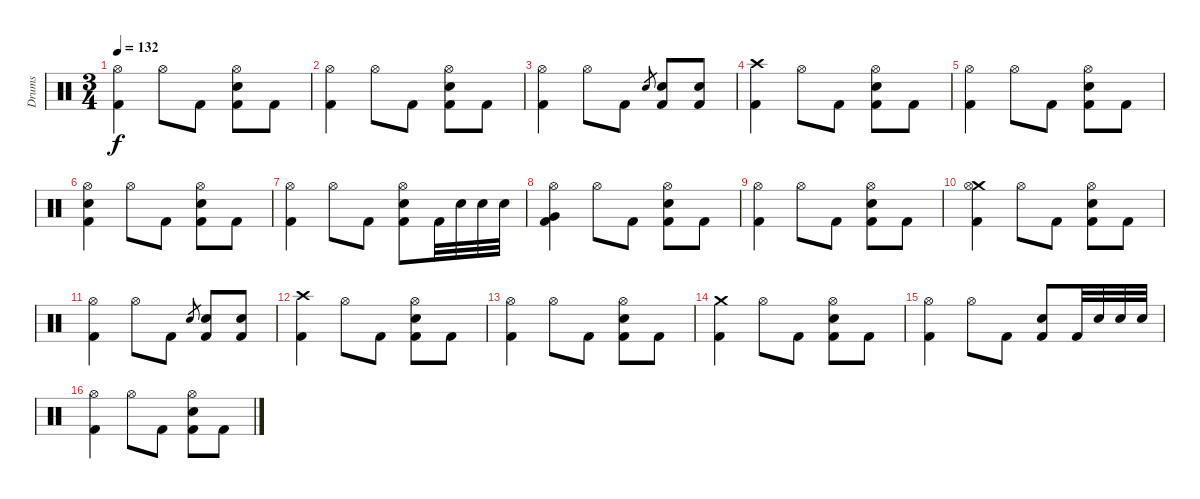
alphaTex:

\track ("Drums" "Drums") {instrument percussion}
\staff {score}
\articulation defaults
\ts (3 4)
\tempo 132
\clef neutral
\ks c
("Hi-Hat (open)" "Kick (hit) 2").4{dy f} "Hi-Hat (open)".8 "Kick (hit) 2".8 ("Hi-Hat (open)" "Electric Snare (hit)" "Kick (hit) 2").8 "Kick (hit) 2".8 |
("Hi-Hat (open)" "Kick (hit) 2").4 "Hi-Hat (open)".8 "Kick (hit) 2".8 ("Hi-Hat (open)" "Electric Snare (hit)" "Kick (hit) 2").8 "Kick (hit) 2".8 |
("Hi-Hat (open)" "Kick (hit) 2").4 "Hi-Hat (open)".8 "Kick (hit) 2".8 "Electric Snare (hit)".8{gr} ("Electric Snare (hit)" "Kick (hit) 2").8 ("Electric Snare (hit)" "Kick (hit) 2").8 |
("Crash high (hit)" "Kick (hit) 2").4 "Hi-Hat (open)".8 "Kick (hit) 2".8 ("Hi-Hat (open)" "Electric Snare (hit)" "Kick (hit) 2").8 "Kick (hit) 2".8 |
("Hi-Hat (open)" "Kick (hit) 2").4 "Hi-Hat (open)".8 "Kick (hit) 2".8 ("Hi-Hat (open)" "Electric Snare (hit)" "Kick (hit) 2").8 "Kick (hit) 2".8 |
("Hi-Hat (open)" "Electric Snare (hit)" "Kick (hit) 2").4 "Hi-Hat (open)".8 "Kick (hit) 2".8 ("Hi-Hat (open)" "Electric Snare (hit)" "Kick (hit) 2").8 "Kick (hit) 2".8 |
("Hi-Hat (open)" "Kick (hit) 2").4 "Hi-Hat (open)".8 "Kick (hit) 2".8 ("Hi-Hat (open)" "Electric Snare (hit)" "Kick (hit) 2").8 "Kick (hit) 2".32 "Electric Snare (hit)".32 "Electric Snare (hit)".32 "Electric Snare (hit)".32 |
("Hi-Hat (open)" "Very Low Tom (hit)" "Kick (hit) 2").4 "Hi-Hat (open)".8 "Kick (hit) 2".8 ("Hi-Hat (open)" "Electric Snare (hit)" "Kick (hit) 2").8 "Kick (hit) 2".8 |
("Hi-Hat (open)" "Kick (hit) 2").4 "Hi-Hat (open)".8 "Kick (hit) 2".8 ("Hi-Hat (open)" "Electric Snare (hit)" "Kick (hit) 2").8 "Kick (hit) 2".8 |
("Crash medium (hit)" "Hi-Hat (open)" "Kick (hit) 2").4 "Hi-Hat (open)".8 "Kick (hit) 2".8 ("Hi-Hat (open)" "Electric Snare (hit)" "Kick (hit) 2").8 "Kick (hit) 2".8 |
("Hi-Hat (open)" "Kick (hit) 2").4 "Hi-Hat (open)".8 "Kick (hit) 2".8 "Electric Snare (hit)".8{gr} ("Electric Snare (hit)" "Kick (hit) 2").8 ("Electric Snare (hit)" "Kick (hit) 2").8 |
("Crash high (hit)" "Kick (hit) 2").4 "Hi-Hat (open)".8 "Kick (hit) 2".8 ("Hi-Hat (open)" "Electric Snare (hit)" "Kick (hit) 2").8 "Kick (hit) 2".8 |
("Hi-Hat (open)" "Kick (hit) 2").4 "Hi-Hat (open)".8 "Kick (hit) 2".8 ("Hi-Hat (open)" "Electric Snare (hit)" "Kick (hit) 2").8 "Kick (hit) 2".8 |
("Crash medium (hit)" "Kick (hit) 2").4 "Hi-Hat (open)".8 "Kick (hit) 2".8 ("Hi-Hat (open)" "Electric Snare (hit)" "Kick (hit) 2").8 "Kick (hit) 2".8 |
("Hi-Hat (open)" "Kick (hit) 2").4 "Hi-Hat (open)".8 "Kick (hit) 2".8 ("Electric Snare (hit)" "Kick (hit) 2").8 "Kick (hit) 2".32 "Electric Snare (hit)".32 "Electric Snare (hit)".32 "Electric Snare (hit)".32 |
("Hi-Hat (open)" "Kick (hit) 2").4 "Hi-Hat (open)".8 "Kick (hit) 2".8 ("Hi-Hat (open)" "Electric Snare (hit)" "Kick (hit) 2").8 "Kick (hit) 2".8
